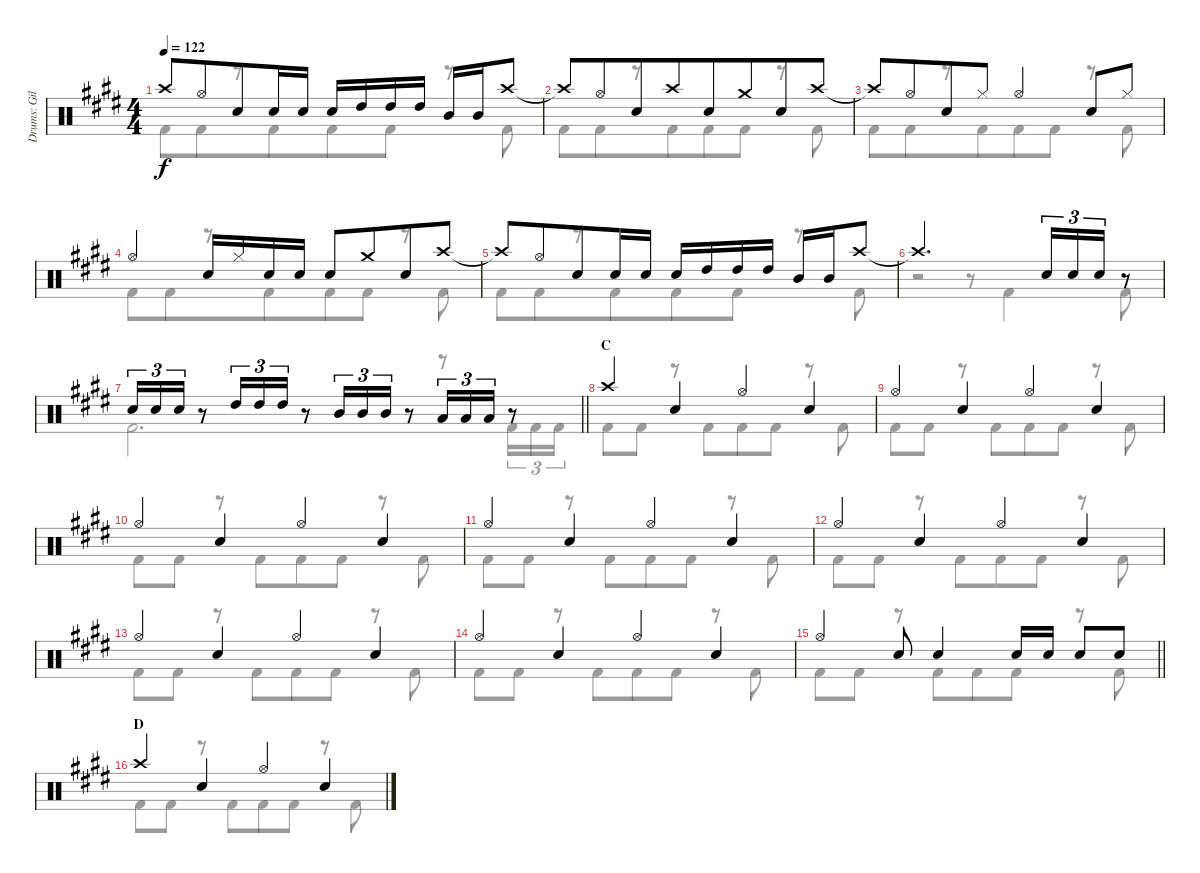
\track ("Drums: Gil" "Drums: Gil") {instrument percussion}
\staff {score}
\articulation defaults
\voice
\ts (4 4)
\tempo 122
\clef neutral
\ks e "Crash high (hit)"{t}.8{dy f} "Hi-Hat (open)".8{beam merge} "Snare (hit) 2".8 "Snare (hit) 2".16 "Snare (hit) 2".16 "Snare (hit) 2".16 "High Tom (hit)".16 "High Tom (hit)".16 "High Tom (hit)".16 "Mid Tom (hit)".16 "Mid Tom (hit)".16 "Crash high (hit)".8
|
"Crash high (hit)"{t}.8 "Hi-Hat (open)".8{beam merge} "Snare (hit) 2".8 "Crash high (hit)".8{beam merge} "Snare (hit) 2".8 "Crash medium (hit)".8{beam merge} "Snare (hit) 2".8 "Crash high (hit)".8 |
"Crash high (hit)"{t}.8 "Hi-Hat (open)".8{beam merge} "Snare (hit) 2".8 "Hi-Hat (closed)".8 "Hi-Hat (open)".4 "Snare (hit) 2".8 "Hi-Hat (closed)".8 |
"Hi-Hat (open)".4{beam merge} "Snare (hit) 2".16 "Hi-Hat (closed)".16 "Snare (hit) 2".16 "Snare (hit) 2".16 "Snare (hit) 2".8 "Crash medium (hit)".8{beam merge} "Electric Snare (hit)".8 "Crash high (hit)".8 |
"Crash high (hit)"{t}.8 "Hi-Hat (open)".8{beam merge} "Snare (hit) 2".8 "Snare (hit) 2".16 "Snare (hit) 2".16 "Snare (hit) 2".16 "High Tom (hit)".16 "High Tom (hit)".16 "High Tom (hit)".16 "Mid Tom (hit)".16 "Mid Tom (hit)".16 "Crash high (hit)".8 |
"Crash high (hit)"{t}.2{d beam merge} "Snare (hit) 2".16{tu (3 2) beam merge} "Snare (hit) 2".16{tu (3 2)} "Snare (hit) 2".16{tu (3 2)} r.8 |
\barLineRight lightlight "Snare (hit) 2".16{tu (3 2)} "Snare (hit) 2".16{tu (3 2)} "Snare (hit) 2".16{tu (3 2)}
r.8{beam merge} "High Tom (hit)".16{tu (3 2) beam merge} "High Tom (hit)".16{tu (3 2)} "High Tom (hit)".16{tu (3 2)} r.8 "Mid Tom (hit)".16{tu (3 2)} "Mid Tom (hit)".16{tu (3 2)} "Mid Tom (hit)".16{tu (3 2)} r.8 "Low Tom (hit)".16{tu (3 2)} "Low Tom (hit)".16{tu (3 2)} "Low Tom (hit)".16{tu (3 2)} r.8 |
\section ("" "C")
"Crash high (hit)".4 "Snare (hit) 2".4 "Hi-Hat (open)".4 "Snare (hit) 2".4 |
"Hi-Hat (open)".4 "Snare (hit) 2".4 "Hi-Hat (open)".4 "Snare (hit) 2".4 |
"Hi-Hat (open)".4 "Snare (hit) 2".4 "Hi-Hat (open)".4 "Snare (hit) 2".4 |
"Hi-Hat (open)".4 "Snare (hit) 2".4 "Hi-Hat (open)".4 "Snare (hit) 2".4 |
"Hi-Hat (open)".4 "Snare (hit) 2".4 "Hi-Hat (open)".4 "Snare (hit) 2".4 |
"Hi-Hat (open)".4 "Snare (hit) 2".4 "Hi-Hat (open)".4 "Snare (hit) 2".4 |
"Hi-Hat (open)".4 "Snare (hit) 2".4 "Hi-Hat (open)".4 "Snare (hit) 2".4 |
\barLineRight lightlight "Hi-Hat (open)".4 "Snare (hit) 2".8 "Snare (hit) 2".4 "Snare (hit) 2".16 "Snare (hit) 2".16 "Snare (hit) 2".8 "Snare (hit) 2".8
|
\section ("" "D")
"Crash high (hit)".4 "Snare (hit) 2".4 "Hi-Hat (open)".4 "Snare (hit) 2".4
\voice
\clef neutral
\ottava regular
\simile none
\ks e "Kick (hit) 2".8{dy f} "Kick (hit) 2".8{beam merge}
r.8{beam merge} "Kick (hit) 2".8{beam merge} "Kick (hit) 2".8 "Kick (hit) 2".8 r.8 "Kick (hit) 2".8 |
"Kick (hit) 2".8 "Kick (hit) 2".8{beam merge} r.8{beam merge} "Kick (hit) 2".8{beam merge} "Kick (hit) 2".8 "Kick (hit) 2".8 r.8 "Kick (hit) 2".8 |
"Kick (hit) 2".8 "Kick (hit) 2".8{beam merge} r.8{beam merge} "Kick (hit) 2".8{beam merge} "Kick (hit) 2".8 "Kick (hit) 2".8 r.8 "Kick (hit) 2".8 |
"Kick (hit) 2".8 "Kick (hit) 2".8{beam merge} r.8{beam merge} "Kick (hit) 2".8{beam merge} "Kick (hit) 2".8 "Kick (hit) 2".8 r.8 "Kick (hit) 2".8 |
"Kick (hit) 2".8 "Kick (hit) 2".8{beam merge} r.8{beam merge} "Kick (hit) 2".8{beam merge} "Kick (hit) 2".8 "Kick (hit) 2".8 r.8 "Kick (hit) 2".8 |
r.2 r.8 "Kick (hit) 2".4 "Kick (hit) 2".8 |
\barLineRight lightlight "Kick (hit) 2".2{d}
r.8 "Kick (hit) 2".16{tu (3 2)} "Kick (hit) 2".16{tu (3 2)} "Kick (hit) 2".16{tu (3 2)} |
"Kick (hit) 2".8 "Kick (hit) 2".8 r.8 "Kick (hit) 2".8{beam merge} "Kick (hit) 2".8 "Kick (hit) 2".8 r.8 "Kick (hit) 2".8 |
"Kick (hit) 2".8 "Kick (hit) 2".8 r.8 "Kick (hit) 2".8{beam merge} "Kick (hit) 2".8 "Kick (hit) 2".8 r.8 "Kick (hit) 2".8 |
"Kick (hit) 2".8 "Kick (hit) 2".8 r.8 "Kick (hit) 2".8{beam merge} "Kick (hit) 2".8 "Kick (hit) 2".8 r.8 "Kick (hit) 2".8 |
"Kick (hit) 2".8 "Kick (hit) 2".8 r.8 "Kick (hit) 2".8{beam merge} "Kick (hit) 2".8 "Kick (hit) 2".8 r.8 "Kick (hit) 2".8 |
"Kick (hit) 2".8 "Kick (hit) 2".8 r.8 "Kick (hit) 2".8{beam merge} "Kick (hit) 2".8 "Kick (hit) 2".8 r.8 "Kick (hit) 2".8 |
"Kick (hit) 2".8 "Kick (hit) 2".8 r.8 "Kick (hit) 2".8{beam merge} "Kick (hit) 2".8 "Kick (hit) 2".8 r.8 "Kick (hit) 2".8 |
"Kick (hit) 2".8 "Kick (hit) 2".8 r.8 "Kick (hit) 2".8{beam merge} "Kick (hit) 2".8 "Kick (hit) 2".8 r.8 "Kick (hit) 2".8 |
\barLineRight lightlight "Kick (hit) 2".8 "Kick (hit) 2".8
r.8 "Kick (hit) 2".8{beam merge} "Kick (hit) 2".8 "Kick (hit) 2".8 r.8 "Kick (hit) 2".8 |
"Kick (hit) 2".8 "Kick (hit) 2".8 r.8 "Kick (hit) 2".8{beam merge} "Kick (hit) 2".8 "Kick (hit) 2".8 r.8 "Kick (hit) 2".8
